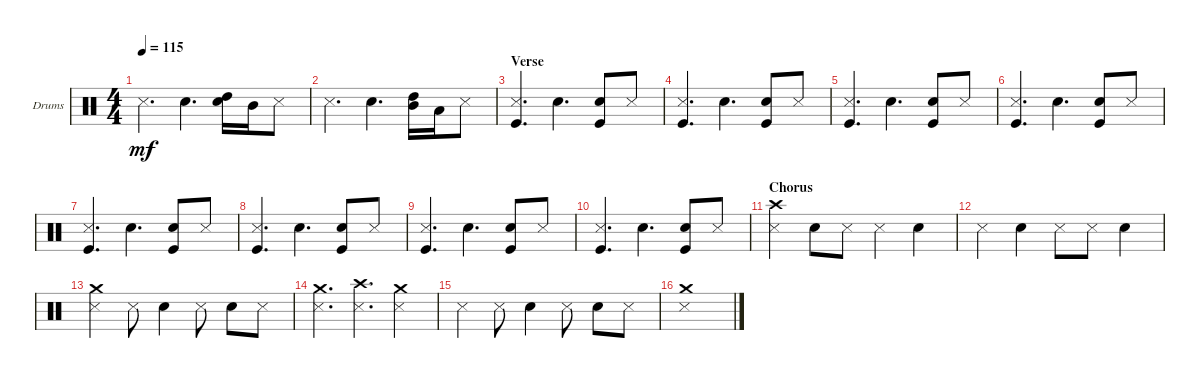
\defaultSystemsLayout 4
\bracketExtendMode groupsimilarinstruments
\firstSystemTrackNameOrientation horizontal
\otherSystemsTrackNameOrientation horizontal
\track ("Drumkit" "Drums") {instrument percussion}
\staff {score}
\articulation defaults
\ts (4 4)
\tempo 115
\clef neutral
\ks c "Snare (side stick) 3".4{d dy mf} "Snare (hit) 2".4{d}
("Snare (hit) 2" "High Tom (hit)").16 "Mid Tom (hit)".16 "Snare (side stick) 3".8 |
"Snare (side stick) 3".4{d} "Snare (hit) 2".4{d} ("High Tom (hit)" "Mid Tom (hit)").16 "Low Tom (hit)".16 "Snare (side stick) 3".8 |
\section ("" "Verse")
("Snare (side stick) 3" "Kick (hit)").4{d} "Snare (hit) 2".4{d} ("Snare (hit) 2" "Kick (hit)").8 "Snare (side stick) 3".8 |
("Snare (side stick) 3" "Kick (hit)").4{d} "Snare (hit) 2".4{d} ("Snare (hit) 2" "Kick (hit)").8 "Snare (side stick) 3".8 |
("Snare (side stick) 3" "Kick (hit)").4{d} "Snare (hit) 2".4{d} ("Snare (hit) 2" "Kick (hit)").8 "Snare (side stick) 3".8 |
("Snare (side stick) 3" "Kick (hit)").4{d} "Snare (hit) 2".4{d} ("Snare (hit) 2" "Kick (hit)").8 "Snare (side stick) 3".8 |
("Snare (side stick) 3" "Kick (hit)").4{d} "Snare (hit) 2".4{d} ("Snare (hit) 2" "Kick (hit)").8 "Snare (side stick) 3".8 |
("Snare (side stick) 3" "Kick (hit)").4{d} "Snare (hit) 2".4{d} ("Snare (hit) 2" "Kick (hit)").8 "Snare (side stick) 3".8 |
("Snare (side stick) 3" "Kick (hit)").4{d} "Snare (hit) 2".4{d} ("Snare (hit) 2" "Kick (hit)").8 "Snare (side stick) 3".8 |
("Snare (side stick) 3" "Kick (hit)").4{d} "Snare (hit) 2".4{d} ("Snare (hit) 2" "Kick (hit)").8 "Snare (side stick) 3".8 |
\section ("" "Chorus")
("Crash high (hit)" "Snare (side stick) 3").4 "Snare (hit) 2".8 "Snare (side stick) 3".8 "Snare (side stick) 3".4 "Snare (hit) 2".4 |
"Snare (side stick) 3".4 "Snare (hit) 2".4 "Snare (side stick) 3".8 "Snare (side stick) 3".8 "Snare (hit) 2".4 |
("Crash medium (hit)" "Snare (side stick) 3").4 "Snare (side stick) 3".8 "Snare (hit) 2".4 "Snare (side stick) 3".8 "Snare (hit) 2".8 "Snare (side stick) 3".8 |
("Crash medium (hit)" "Snare (side stick) 3").4{d} ("Crash high (hit)" "Snare (side stick) 3").4{d} ("Crash medium (hit)" "Snare (side stick) 3").4 |
"Snare (side stick) 3".4 "Snare (side stick) 3".8 "Snare (hit) 2".4 "Snare (side stick) 3".8 "Snare (hit) 2".8 "Snare (side stick) 3".8 |
("Snare (side stick) 3" "Crash medium (hit)").1
